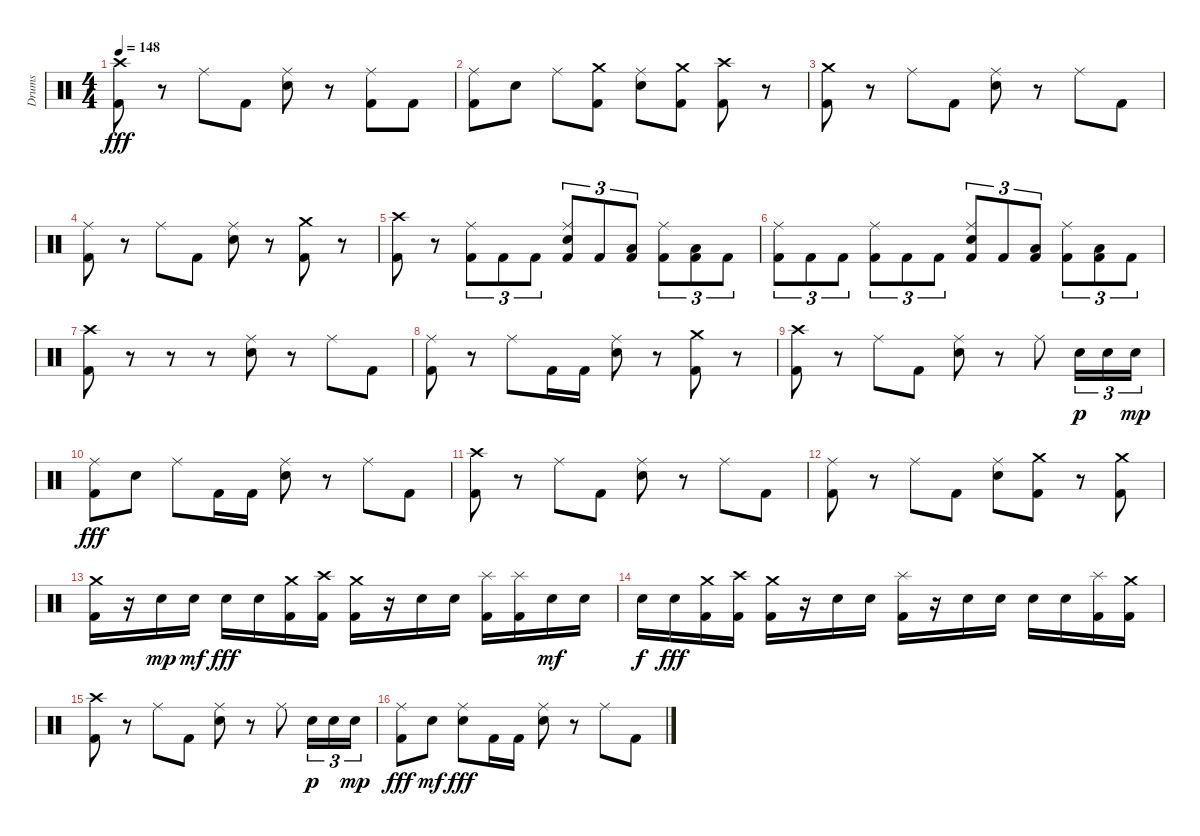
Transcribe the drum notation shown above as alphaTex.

\track ("Drums" "Drums") {instrument percussion}
\staff {score}
\articulation defaults
\ts (4 4)
\tempo 148
\clef neutral
\ks c
("Crash high (hit)" "Kick (hit) 2").8{dy fff} r.8 "Ride (middle)".8 "Kick (hit) 2".8 ("Ride (middle)" "Electric Snare (hit)").8 r.8 ("Ride (middle)" "Kick (hit) 2").8 "Kick (hit) 2".8 |
("Ride (middle)" "Kick (hit) 2").8 "Snare (hit) 2".8 "Ride (middle)".8 ("Crash medium (hit)" "Kick (hit) 2").8 ("Ride (middle)" "Electric Snare (hit)").8 ("Crash medium (hit)" "Kick (hit) 2").8 ("Crash high (hit)" "Kick (hit) 2").8 r.8 |
("Crash medium (hit)" "Kick (hit) 2").8 r.8 "Ride (middle)".8 "Kick (hit) 2".8 ("Ride (middle)" "Electric Snare (hit)").8 r.8 "Ride (middle)".8 "Kick (hit) 2".8 |
("Ride (middle)" "Kick (hit) 2").8 r.8 "Ride (middle)".8 "Kick (hit) 2".8 ("Ride (middle)" "Electric Snare (hit)").8 r.8 ("Crash medium (hit)" "Kick (hit) 2").8 r.8 |
("Crash high (hit)" "Kick (hit) 2").8 r.8 ("Ride (middle)" "Kick (hit) 2").8{tu (3 2)} "Kick (hit) 2".8{tu (3 2)} "Kick (hit) 2".8{tu (3 2)} ("Ride (middle)" "Electric Snare (hit)" "Kick (hit) 2").8{tu (3 2)} "Kick (hit) 2".8{tu (3 2)} ("Low Tom (hit)" "Kick (hit) 2").8{tu (3 2)} ("Ride (middle)" "Kick (hit) 2").8{tu (3 2)} ("Low Floor Tom (hit)" "Kick (hit) 2").8{tu (3 2)} "Kick (hit) 2".8{tu (3 2)} |
("Ride (middle)" "Kick (hit) 2").8{tu (3 2)} "Kick (hit) 2".8{tu (3 2)} "Kick (hit) 2".8{tu (3 2)} ("Ride (middle)" "Kick (hit) 2").8{tu (3 2)} "Kick (hit) 2".8{tu (3 2)} "Kick (hit) 2".8{tu (3 2)} ("Ride (middle)" "Electric Snare (hit)" "Kick (hit) 2").8{tu (3 2)} "Kick (hit) 2".8{tu (3 2)} ("Low Tom (hit)" "Kick (hit) 2").8{tu (3 2)} ("Ride (middle)" "Kick (hit) 2").8{tu (3 2)} ("Low Floor Tom (hit)" "Kick (hit) 2").8{tu (3 2)} "Kick (hit) 2".8{tu (3 2)} |
("Crash high (hit)" "Kick (hit) 2").8 r.8 r.8 r.8 ("Ride (middle)" "Electric Snare (hit)").8 r.8 "Ride (middle)".8 "Kick (hit) 2".8 |
("Ride (middle)" "Kick (hit) 2").8 r.8 "Ride (middle)".8 "Kick (hit) 2".16 "Kick (hit) 2".16 ("Ride (middle)" "Electric Snare (hit)").8 r.8 ("Crash medium (hit)" "Kick (hit) 2").8 r.8 |
("Crash high (hit)" "Kick (hit) 2").8 r.8 "Ride (middle)".8 "Kick (hit) 2".8 ("Ride (middle)" "Electric Snare (hit)").8 r.8 "Ride (middle)".8 "Electric Snare (hit)".16{tu (3 2) dy p} "Electric Snare (hit)".16{tu (3 2)} "Electric Snare (hit)".16{tu (3 2) dy mp} |
("Ride (middle)" "Kick (hit) 2").8{dy fff} "Electric Snare (hit)".8 "Ride (middle)".8 "Kick (hit) 2".16 "Kick (hit) 2".16 ("Ride (middle)" "Electric Snare (hit)").8 r.8 "Ride (middle)".8 "Kick (hit) 2".8 |
("Crash high (hit)" "Kick (hit) 2").8 r.8 "Ride (middle)".8 "Kick (hit) 2".8 ("Ride (middle)" "Electric Snare (hit)").8 r.8 "Ride (middle)".8 "Kick (hit) 2".8 |
("Ride (middle)" "Kick (hit) 2").8 r.8 "Ride (middle)".8 "Kick (hit) 2".8 ("Ride (middle)" "Electric Snare (hit)").8 ("Crash medium (hit)" "Kick (hit) 2").8 r.8 ("Crash medium (hit)" "Kick (hit) 2").8 |
("Crash medium (hit)" "Kick (hit) 2").16 r.16 "Electric Snare (hit)".16{dy mp} "Electric Snare (hit)".16{dy mf} "Electric Snare (hit)".16{dy fff} "Electric Snare (hit)".16 ("Crash medium (hit)" "Kick (hit) 2").16 ("Crash high (hit)" "Kick (hit) 2").16 ("Crash medium (hit)" "Kick (hit) 2").16 r.16 "Electric Snare (hit)".16 "Electric Snare (hit)".16 ("Splash (hit)" "Kick (hit) 2").16 ("Splash (hit)" "Kick (hit) 2").16 "Electric Snare (hit)".16{dy mf} "Electric Snare (hit)".16 |
"Electric Snare (hit)".16{dy f} "Electric Snare (hit)".16{dy fff} ("Crash medium (hit)" "Kick (hit) 2").16 ("Crash high (hit)" "Kick (hit) 2").16 ("Crash medium (hit)" "Kick (hit) 2").16 r.16 "Electric Snare (hit)".16 "Electric Snare (hit)".16 ("Splash (hit)" "Kick (hit) 2").16 r.16 "Electric Snare (hit)".16 "Electric Snare (hit)".16 "Electric Snare (hit)".16 "Electric Snare (hit)".16 ("Splash (hit)" "Kick (hit) 2").16 ("Crash medium (hit)" "Kick (hit) 2").16 |
("Crash high (hit)" "Kick (hit) 2").8 r.8 "Ride (middle)".8 "Kick (hit) 2".8 ("Ride (middle)" "Electric Snare (hit)").8 r.8 "Ride (middle)".8 "Electric Snare (hit)".16{tu (3 2) dy p} "Electric Snare (hit)".16{tu (3 2)} "Electric Snare (hit)".16{tu (3 2) dy mp} |
("Ride (middle)" "Kick (hit) 2").8{dy fff} "Electric Snare (hit)".8{dy mf} ("Ride (middle)" "Electric Snare (hit)").8{dy fff} "Kick (hit) 2".16 "Kick (hit) 2".16 ("Ride (middle)" "Electric Snare (hit)").8 r.8 "Ride (middle)".8 "Kick (hit) 2".8
